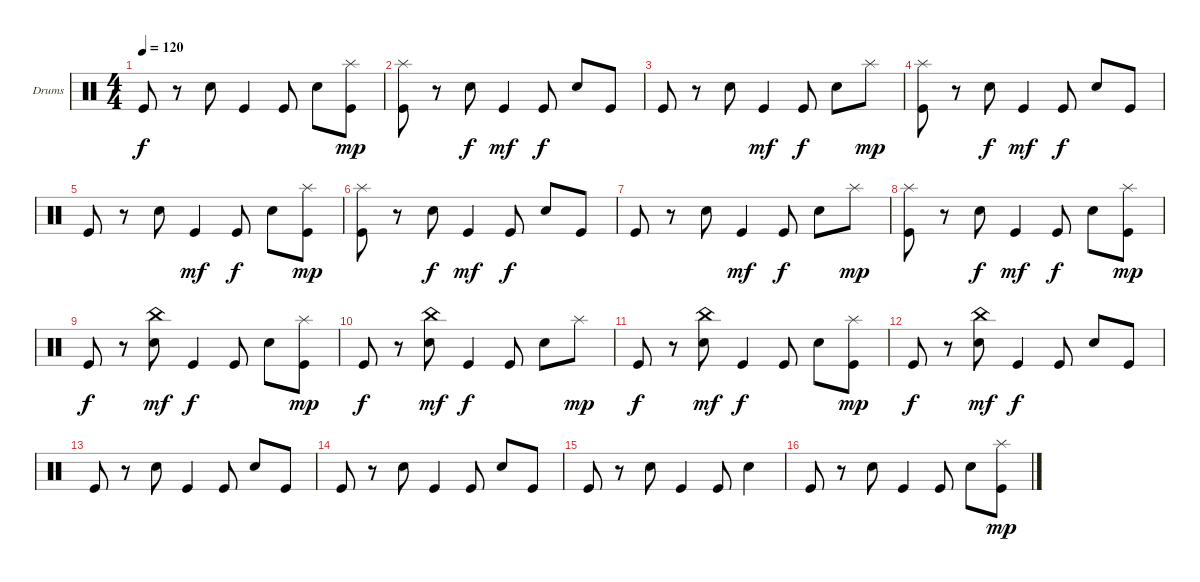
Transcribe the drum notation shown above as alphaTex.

\bracketExtendMode groupsimilarinstruments
\firstSystemTrackNameOrientation horizontal
\otherSystemsTrackNameOrientation horizontal
\track ("Drums" "Drums") {instrument percussion}
\staff {score}
\articulation defaults
\ts (4 4)
\tempo 120
\clef neutral
\ks c "Kick (hit)".8{dy f}
r.8 "Snare (hit) 2".8 "Kick (hit)".4 "Kick (hit)".8 "Snare (hit) 2".8 ("Splash (hit)" "Kick (hit)").8{dy mp} |
("Splash (hit)" "Kick (hit)").8 r.8 "Snare (hit) 2".8{dy f} "Kick (hit)".4{dy mf} "Kick (hit)".8{dy f} "Snare (hit) 2".8 "Kick (hit)".8 |
"Kick (hit)".8 r.8 "Snare (hit) 2".8 "Kick (hit)".4{dy mf} "Kick (hit)".8{dy f} "Snare (hit) 2".8 "Splash (hit)".8{dy mp} |
("Splash (hit)" "Kick (hit)").8 r.8 "Snare (hit) 2".8{dy f} "Kick (hit)".4{dy mf} "Kick (hit)".8{dy f} "Snare (hit) 2".8 "Kick (hit)".8 |
"Kick (hit)".8 r.8 "Snare (hit) 2".8 "Kick (hit)".4{dy mf} "Kick (hit)".8{dy f} "Snare (hit) 2".8 ("Splash (hit)" "Kick (hit)").8{dy mp} |
("Splash (hit)" "Kick (hit)").8 r.8 "Snare (hit) 2".8{dy f} "Kick (hit)".4{dy mf} "Kick (hit)".8{dy f} "Snare (hit) 2".8 "Kick (hit)".8 |
"Kick (hit)".8 r.8 "Snare (hit) 2".8 "Kick (hit)".4{dy mf} "Kick (hit)".8{dy f} "Snare (hit) 2".8 "Splash (hit)".8{dy mp} |
("Splash (hit)" "Kick (hit)").8 r.8 "Snare (hit) 2".8{dy f} "Kick (hit)".4{dy mf} "Kick (hit)".8{dy f} "Snare (hit) 2".8 ("Splash (hit)" "Kick (hit)").8{dy mp} |
"Kick (hit)".8{dy f} r.8 ("China (hit)" "Snare (hit) 2").8{dy mf} "Kick (hit)".4{dy f} "Kick (hit)".8 "Snare (hit) 2".8 ("Splash (hit)" "Kick (hit)").8{dy mp} |
"Kick (hit)".8{dy f} r.8 ("China (hit)" "Snare (hit) 2").8{dy mf} "Kick (hit)".4{dy f} "Kick (hit)".8 "Snare (hit) 2".8 "Splash (hit)".8{dy mp} |
"Kick (hit)".8{dy f} r.8 ("China (hit)" "Snare (hit) 2").8{dy mf} "Kick (hit)".4{dy f} "Kick (hit)".8 "Snare (hit) 2".8 ("Splash (hit)" "Kick (hit)").8{dy mp} |
"Kick (hit)".8{dy f} r.8 ("China (hit)" "Snare (hit) 2").8{dy mf} "Kick (hit)".4{dy f} "Kick (hit)".8 "Snare (hit) 2".8 "Kick (hit)".8 |
"Kick (hit)".8 r.8 "Snare (hit) 2".8 "Kick (hit)".4 "Kick (hit)".8 "Snare (hit) 2".8 "Kick (hit)".8 |
"Kick (hit)".8 r.8 "Snare (hit) 2".8 "Kick (hit)".4 "Kick (hit)".8 "Snare (hit) 2".8 "Kick (hit)".8 |
"Kick (hit)".8 r.8 "Snare (hit) 2".8 "Kick (hit)".4 "Kick (hit)".8 "Snare (hit) 2".4 |
"Kick (hit)".8 r.8 "Snare (hit) 2".8 "Kick (hit)".4 "Kick (hit)".8 "Snare (hit) 2".8 ("Splash (hit)" "Kick (hit)").8{dy mp}
